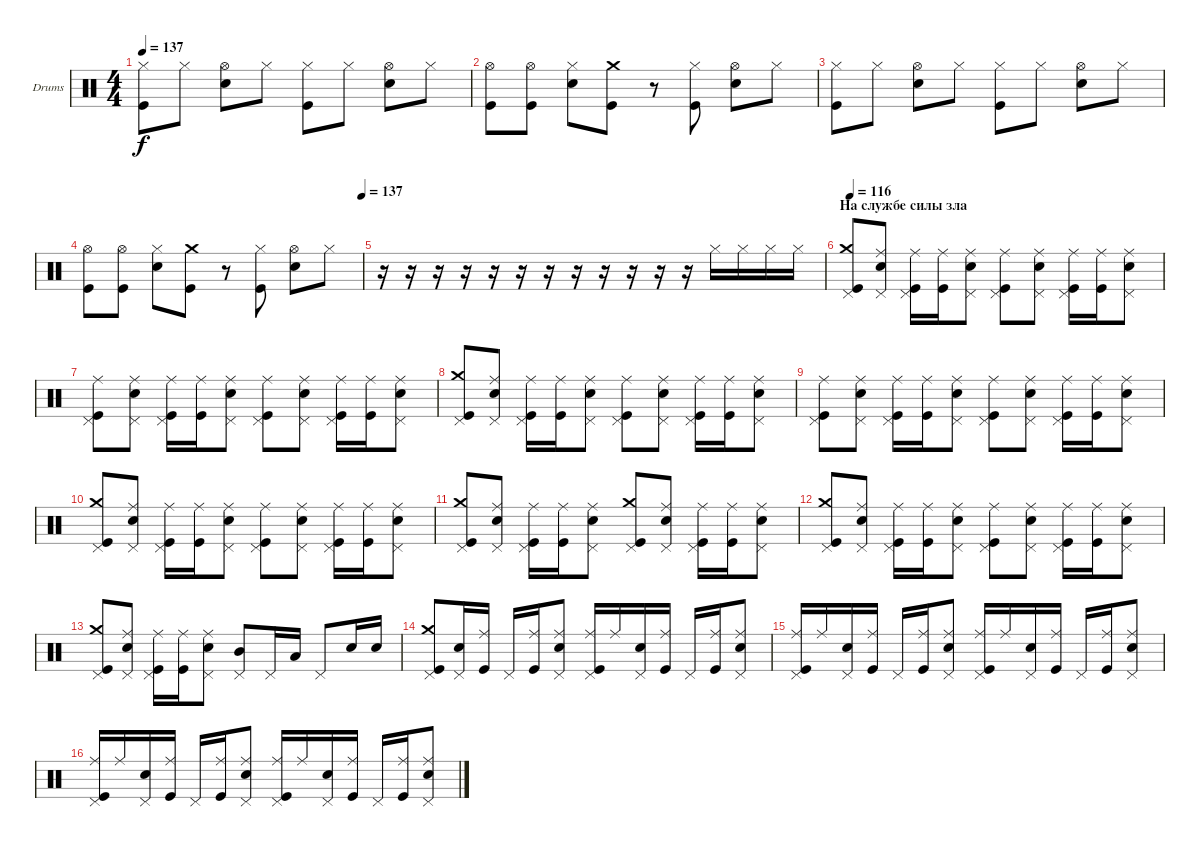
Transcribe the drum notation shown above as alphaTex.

\defaultSystemsLayout 4
\bracketExtendMode nobrackets
\firstSystemTrackNameOrientation horizontal
\otherSystemsTrackNameOrientation horizontal
\track ("Ударные" "Drums") {instrument percussion}
\staff {score}
\articulation defaults
\ts (4 4)
\tempo 137
\clef neutral
\ks c
("Hi-Hat (closed)" "Kick (hit)").8{dy f} "Hi-Hat (closed)".8 ("Hi-Hat (open)" "Snare (hit) 2").8 "Hi-Hat (closed)".8 ("Hi-Hat (closed)" "Kick (hit)").8 "Hi-Hat (closed)".8 ("Hi-Hat (open)" "Snare (hit) 2").8 "Hi-Hat (closed)".8 |
("Hi-Hat (open)" "Kick (hit)").8 ("Hi-Hat (open)" "Kick (hit)").8 ("Hi-Hat (closed)" "Snare (hit) 2").8 ("Crash medium (hit)" "Kick (hit)").8 r.8 ("Hi-Hat (closed)" "Kick (hit)").8 ("Hi-Hat (open)" "Snare (hit) 2").8 "Hi-Hat (closed)".8 |
("Hi-Hat (closed)" "Kick (hit)").8 "Hi-Hat (closed)".8 ("Hi-Hat (open)" "Snare (hit) 2").8 "Hi-Hat (closed)".8 ("Hi-Hat (closed)" "Kick (hit)").8 "Hi-Hat (closed)".8 ("Hi-Hat (open)" "Snare (hit) 2").8 "Hi-Hat (closed)".8 |
\tempo (137 1)
("Hi-Hat (open)" "Kick (hit)").8 ("Hi-Hat (open)" "Kick (hit)").8 ("Hi-Hat (closed)" "Snare (hit) 2").8 ("Crash medium (hit)" "Kick (hit)").8 r.8 ("Hi-Hat (closed)" "Kick (hit)").8 ("Hi-Hat (open)" "Snare (hit) 2").8 "Hi-Hat (closed)".8 |
r.16 r.16 r.16 r.16 r.16 r.16 r.16 r.16 r.16 r.16 r.16 r.16 "Hi-Hat (closed)".16 "Hi-Hat (closed)".16 "Hi-Hat (closed)".16 "Hi-Hat (closed)".16 |
\section ("" "На службе силы зла")
\tempo 116
("Kick (hit)" "Crash medium (hit)" "Pedal Hi-Hat (hit)").8 ("Snare (hit) 2" "Pedal Hi-Hat (hit)" "Ride (middle)").8 ("Pedal Hi-Hat (hit)" "Kick (hit)" "Ride (middle)").16 ("Kick (hit)" "Ride (middle)").16 ("Snare (hit) 2" "Pedal Hi-Hat (hit)" "Ride (middle)").8 ("Kick (hit)" "Pedal Hi-Hat (hit)" "Ride (middle)").8 ("Snare (hit) 2" "Pedal Hi-Hat (hit)" "Ride (middle)").8 ("Kick (hit)" "Pedal Hi-Hat (hit)" "Ride (middle)").16 ("Kick (hit)" "Ride (middle)").16 ("Snare (hit) 2" "Pedal Hi-Hat (hit)" "Ride (middle)").8 |
("Kick (hit)" "Ride (middle)" "Pedal Hi-Hat (hit)").8 ("Snare (hit) 2" "Pedal Hi-Hat (hit)" "Ride (middle)").8 ("Pedal Hi-Hat (hit)" "Kick (hit)" "Ride (middle)").16 ("Kick (hit)" "Ride (middle)").16 ("Snare (hit) 2" "Pedal Hi-Hat (hit)" "Ride (middle)").8 ("Kick (hit)" "Pedal Hi-Hat (hit)" "Ride (middle)").8 ("Snare (hit) 2" "Pedal Hi-Hat (hit)" "Ride (middle)").8 ("Kick (hit)" "Pedal Hi-Hat (hit)" "Ride (middle)").16 ("Kick (hit)" "Ride (middle)").16 ("Snare (hit) 2" "Pedal Hi-Hat (hit)" "Ride (middle)").8 |
("Kick (hit)" "Crash medium (hit)" "Pedal Hi-Hat (hit)").8 ("Snare (hit) 2" "Pedal Hi-Hat (hit)" "Ride (middle)").8 ("Pedal Hi-Hat (hit)" "Kick (hit)" "Ride (middle)").16 ("Kick (hit)" "Ride (middle)").16 ("Snare (hit) 2" "Pedal Hi-Hat (hit)" "Ride (middle)").8 ("Kick (hit)" "Pedal Hi-Hat (hit)" "Ride (middle)").8 ("Snare (hit) 2" "Pedal Hi-Hat (hit)" "Ride (middle)").8 ("Kick (hit)" "Pedal Hi-Hat (hit)" "Ride (middle)").16 ("Kick (hit)" "Ride (middle)").16 ("Snare (hit) 2" "Pedal Hi-Hat (hit)" "Ride (middle)").8 |
("Kick (hit)" "Ride (middle)" "Pedal Hi-Hat (hit)").8 ("Snare (hit) 2" "Pedal Hi-Hat (hit)" "Ride (middle)").8 ("Pedal Hi-Hat (hit)" "Kick (hit)" "Ride (middle)").16 ("Kick (hit)" "Ride (middle)").16 ("Snare (hit) 2" "Pedal Hi-Hat (hit)" "Ride (middle)").8 ("Kick (hit)" "Pedal Hi-Hat (hit)" "Ride (middle)").8 ("Snare (hit) 2" "Pedal Hi-Hat (hit)" "Ride (middle)").8 ("Kick (hit)" "Pedal Hi-Hat (hit)" "Ride (middle)").16 ("Kick (hit)" "Ride (middle)").16 ("Snare (hit) 2" "Pedal Hi-Hat (hit)" "Ride (middle)").8 |
("Kick (hit)" "Crash medium (hit)" "Pedal Hi-Hat (hit)").8 ("Snare (hit) 2" "Pedal Hi-Hat (hit)" "Ride (middle)").8 ("Pedal Hi-Hat (hit)" "Kick (hit)" "Ride (middle)").16 ("Kick (hit)" "Ride (middle)").16 ("Snare (hit) 2" "Pedal Hi-Hat (hit)" "Ride (middle)").8 ("Kick (hit)" "Pedal Hi-Hat (hit)" "Ride (middle)").8 ("Snare (hit) 2" "Pedal Hi-Hat (hit)" "Ride (middle)").8 ("Kick (hit)" "Pedal Hi-Hat (hit)" "Ride (middle)").16 ("Kick (hit)" "Ride (middle)").16 ("Snare (hit) 2" "Pedal Hi-Hat (hit)" "Ride (middle)").8 |
("Kick (hit)" "Crash medium (hit)" "Pedal Hi-Hat (hit)").8 ("Snare (hit) 2" "Pedal Hi-Hat (hit)" "Ride (middle)").8 ("Pedal Hi-Hat (hit)" "Kick (hit)" "Ride (middle)").16 ("Kick (hit)" "Ride (middle)").16 ("Snare (hit) 2" "Pedal Hi-Hat (hit)" "Ride (middle)").8 ("Kick (hit)" "Pedal Hi-Hat (hit)" "Crash medium (hit)").8 ("Snare (hit) 2" "Pedal Hi-Hat (hit)" "Ride (middle)").8 ("Kick (hit)" "Pedal Hi-Hat (hit)" "Ride (middle)").16 ("Kick (hit)" "Ride (middle)").16 ("Snare (hit) 2" "Pedal Hi-Hat (hit)" "Ride (middle)").8 |
("Kick (hit)" "Crash medium (hit)" "Pedal Hi-Hat (hit)").8 ("Snare (hit) 2" "Pedal Hi-Hat (hit)" "Ride (middle)").8 ("Pedal Hi-Hat (hit)" "Kick (hit)" "Ride (middle)").16 ("Kick (hit)" "Ride (middle)").16 ("Snare (hit) 2" "Pedal Hi-Hat (hit)" "Ride (middle)").8 ("Kick (hit)" "Pedal Hi-Hat (hit)" "Ride (middle)").8 ("Snare (hit) 2" "Pedal Hi-Hat (hit)" "Ride (middle)").8 ("Kick (hit)" "Pedal Hi-Hat (hit)" "Ride (middle)").16 ("Kick (hit)" "Ride (middle)").16 ("Snare (hit) 2" "Pedal Hi-Hat (hit)" "Ride (middle)").8 |
("Kick (hit)" "Crash medium (hit)" "Pedal Hi-Hat (hit)").8 ("Snare (hit) 2" "Pedal Hi-Hat (hit)" "Ride (middle)").8 ("Pedal Hi-Hat (hit)" "Kick (hit)" "Ride (middle)").16 ("Kick (hit)" "Ride (middle)").16 ("Snare (hit) 2" "Pedal Hi-Hat (hit)" "Ride (middle)").8 ("Pedal Hi-Hat (hit)" "Mid Tom (hit)").8 "Pedal Hi-Hat (hit)".16 "Low Tom (hit)".16 "Pedal Hi-Hat (hit)".8 "Snare (hit) 2".16 "Snare (hit) 2".16 |
("Kick (hit)" "Crash medium (hit)" "Pedal Hi-Hat (hit)").8 ("Snare (hit) 2" "Pedal Hi-Hat (hit)").16 ("Kick (hit)" "Ride (middle)").16 "Pedal Hi-Hat (hit)".16 ("Ride (middle)" "Kick (hit)").16 ("Snare (hit) 2" "Ride (middle)" "Pedal Hi-Hat (hit)").8 ("Kick (hit)" "Ride (middle)" "Pedal Hi-Hat (hit)").16 "Ride (middle)".16 ("Snare (hit) 2" "Pedal Hi-Hat (hit)").16 ("Kick (hit)" "Ride (middle)").16 "Pedal Hi-Hat (hit)".16 ("Ride (middle)" "Kick (hit)").16 ("Ride (middle)" "Snare (hit) 2" "Pedal Hi-Hat (hit)").8 |
("Kick (hit)" "Ride (middle)" "Pedal Hi-Hat (hit)").16 "Ride (middle)".16 ("Snare (hit) 2" "Pedal Hi-Hat (hit)").16 ("Kick (hit)" "Ride (middle)").16 "Pedal Hi-Hat (hit)".16 ("Ride (middle)" "Kick (hit)").16 ("Snare (hit) 2" "Ride (middle)" "Pedal Hi-Hat (hit)").8 ("Kick (hit)" "Ride (middle)" "Pedal Hi-Hat (hit)").16 "Ride (middle)".16 ("Snare (hit) 2" "Pedal Hi-Hat (hit)").16 ("Kick (hit)" "Ride (middle)").16 "Pedal Hi-Hat (hit)".16 ("Ride (middle)" "Kick (hit)").16 ("Ride (middle)" "Snare (hit) 2" "Pedal Hi-Hat (hit)").8 |
("Kick (hit)" "Ride (middle)" "Pedal Hi-Hat (hit)").16 "Ride (middle)".16 ("Snare (hit) 2" "Pedal Hi-Hat (hit)").16 ("Kick (hit)" "Ride (middle)").16 "Pedal Hi-Hat (hit)".16 ("Ride (middle)" "Kick (hit)").16 ("Snare (hit) 2" "Ride (middle)" "Pedal Hi-Hat (hit)").8 ("Kick (hit)" "Ride (middle)" "Pedal Hi-Hat (hit)").16 "Ride (middle)".16 ("Snare (hit) 2" "Pedal Hi-Hat (hit)").16 ("Kick (hit)" "Ride (middle)").16 "Pedal Hi-Hat (hit)".16 ("Ride (middle)" "Kick (hit)").16 ("Ride (middle)" "Snare (hit) 2" "Pedal Hi-Hat (hit)").8
